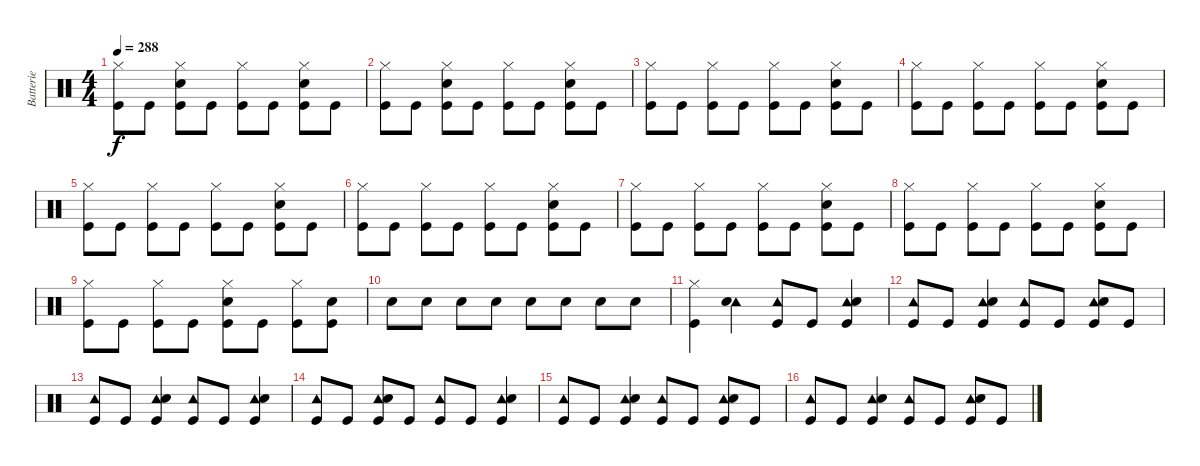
\track ("Batterie" "Batterie") {instrument percussion}
\staff {score}
\articulation defaults
\ts (4 4)
\tempo 288
\clef neutral
\ks c
("Hi-Hat (closed)" "Kick (hit)").8{dy f} "Kick (hit)".8 ("Hi-Hat (closed)" "Snare (hit) 2" "Kick (hit)").8 "Kick (hit)".8 ("Hi-Hat (closed)" "Kick (hit)").8 "Kick (hit)".8 ("Hi-Hat (closed)" "Snare (hit) 2" "Kick (hit)").8 "Kick (hit)".8 |
("Hi-Hat (closed)" "Kick (hit)").8 "Kick (hit)".8 ("Hi-Hat (closed)" "Snare (hit) 2" "Kick (hit)").8 "Kick (hit)".8 ("Hi-Hat (closed)" "Kick (hit)").8 "Kick (hit)".8 ("Hi-Hat (closed)" "Snare (hit) 2" "Kick (hit)").8 "Kick (hit)".8 |
("Hi-Hat (closed)" "Kick (hit)").8 "Kick (hit)".8 ("Hi-Hat (closed)" "Kick (hit)").8 "Kick (hit)".8 ("Hi-Hat (closed)" "Kick (hit)").8 "Kick (hit)".8 ("Hi-Hat (closed)" "Snare (hit) 2" "Kick (hit)").8 "Kick (hit)".8 |
("Hi-Hat (closed)" "Kick (hit)").8 "Kick (hit)".8 ("Hi-Hat (closed)" "Kick (hit)").8 "Kick (hit)".8 ("Hi-Hat (closed)" "Kick (hit)").8 "Kick (hit)".8 ("Hi-Hat (closed)" "Snare (hit) 2" "Kick (hit)").8 "Kick (hit)".8 |
("Hi-Hat (closed)" "Kick (hit)").8 "Kick (hit)".8 ("Hi-Hat (closed)" "Kick (hit)").8 "Kick (hit)".8 ("Hi-Hat (closed)" "Kick (hit)").8 "Kick (hit)".8 ("Hi-Hat (closed)" "Snare (hit) 2" "Kick (hit)").8 "Kick (hit)".8 |
("Hi-Hat (closed)" "Kick (hit)").8 "Kick (hit)".8 ("Hi-Hat (closed)" "Kick (hit)").8 "Kick (hit)".8 ("Hi-Hat (closed)" "Kick (hit)").8 "Kick (hit)".8 ("Hi-Hat (closed)" "Snare (hit) 2" "Kick (hit)").8 "Kick (hit)".8 |
("Hi-Hat (closed)" "Kick (hit)").8 "Kick (hit)".8 ("Hi-Hat (closed)" "Kick (hit)").8 "Kick (hit)".8 ("Hi-Hat (closed)" "Kick (hit)").8 "Kick (hit)".8 ("Hi-Hat (closed)" "Snare (hit) 2" "Kick (hit)").8 "Kick (hit)".8 |
("Hi-Hat (closed)" "Kick (hit)").8 "Kick (hit)".8 ("Hi-Hat (closed)" "Kick (hit)").8 "Kick (hit)".8 ("Hi-Hat (closed)" "Kick (hit)").8 "Kick (hit)".8 ("Hi-Hat (closed)" "Snare (hit) 2" "Kick (hit)").8 "Kick (hit)".8 |
("Hi-Hat (closed)" "Kick (hit)").8 "Kick (hit)".8 ("Hi-Hat (closed)" "Kick (hit)").8 "Kick (hit)".8 ("Hi-Hat (closed)" "Snare (hit) 2" "Kick (hit)").8 "Kick (hit)".8 ("Hi-Hat (closed)" "Kick (hit)").8 ("Snare (hit) 2" "Kick (hit)").8 |
"Snare (hit) 2".8 "Snare (hit) 2".8 "Snare (hit) 2".8 "Snare (hit) 2".8 "Snare (hit) 2".8 "Snare (hit) 2".8 "Snare (hit) 2".8 "Snare (hit) 2".8 |
("Hi-Hat (closed)" "Kick (hit)").4 ("Tambourine (hit)" "Snare (hit) 2").4 ("Tambourine (hit)" "Kick (hit)").8 "Kick (hit)".8 ("Tambourine (hit)" "Snare (hit) 2" "Kick (hit)").4 |
("Tambourine (hit)" "Kick (hit)").8 "Kick (hit)".8 ("Tambourine (hit)" "Snare (hit) 2" "Kick (hit)").4 ("Tambourine (hit)" "Kick (hit)").8 "Kick (hit)".8 ("Tambourine (hit)" "Snare (hit) 2" "Kick (hit)").8 "Kick (hit)".8 |
("Tambourine (hit)" "Kick (hit)").8 "Kick (hit)".8 ("Tambourine (hit)" "Snare (hit) 2" "Kick (hit)").4 ("Tambourine (hit)" "Kick (hit)").8 "Kick (hit)".8 ("Tambourine (hit)" "Snare (hit) 2" "Kick (hit)").4 |
("Tambourine (hit)" "Kick (hit)").8 "Kick (hit)".8 ("Tambourine (hit)" "Snare (hit) 2" "Kick (hit)").8 "Kick (hit)".8 ("Tambourine (hit)" "Kick (hit)").8 "Kick (hit)".8 ("Tambourine (hit)" "Snare (hit) 2" "Kick (hit)").4 |
("Tambourine (hit)" "Kick (hit)").8 "Kick (hit)".8 ("Tambourine (hit)" "Snare (hit) 2" "Kick (hit)").4 ("Tambourine (hit)" "Kick (hit)").8 "Kick (hit)".8 ("Tambourine (hit)" "Snare (hit) 2" "Kick (hit)").8 "Kick (hit)".8 |
("Tambourine (hit)" "Kick (hit)").8 "Kick (hit)".8 ("Tambourine (hit)" "Snare (hit) 2" "Kick (hit)").4 ("Tambourine (hit)" "Kick (hit)").8 "Kick (hit)".8 ("Tambourine (hit)" "Snare (hit) 2" "Kick (hit)").8 "Kick (hit)".8
